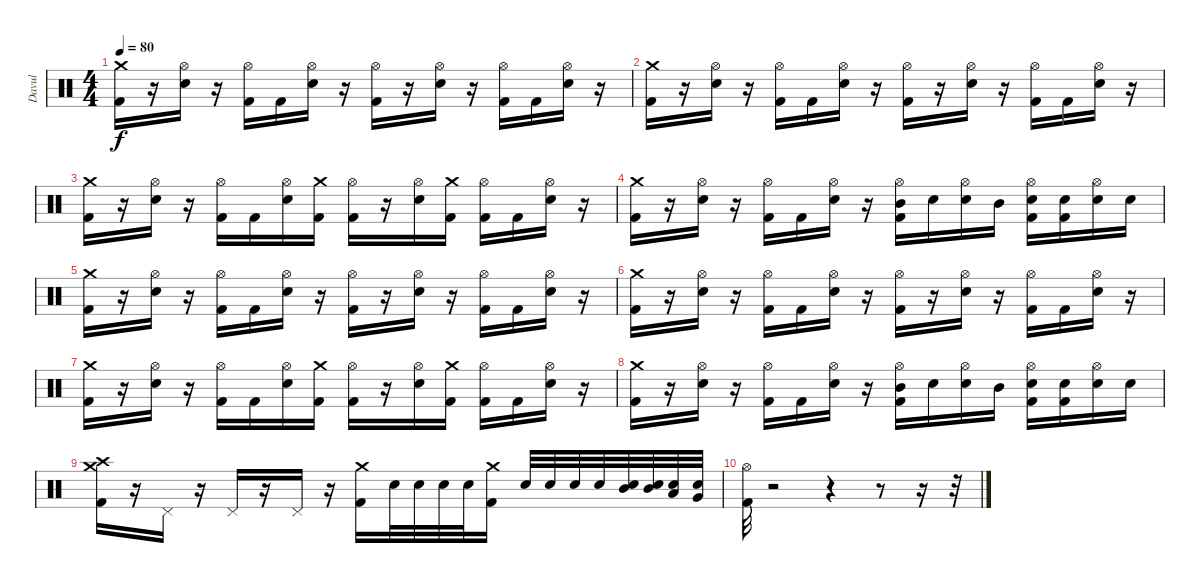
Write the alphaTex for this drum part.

\track ("Davul" "Davul") {instrument percussion}
\staff {score}
\articulation defaults
\ts (4 4)
\tempo 80
\clef neutral
\ks c
("Crash medium (hit)" "Kick (hit) 2").16{dy f} r.16 ("Hi-Hat (open)" "Snare (hit) 2").16 r.16 ("Hi-Hat (open)" "Kick (hit) 2").16 "Kick (hit) 2".16 ("Hi-Hat (open)" "Snare (hit) 2").16 r.16 ("Hi-Hat (open)" "Kick (hit) 2").16 r.16 ("Hi-Hat (open)" "Snare (hit) 2").16 r.16 ("Hi-Hat (open)" "Kick (hit) 2").16 "Kick (hit) 2".16 ("Hi-Hat (open)" "Snare (hit) 2").16 r.16 |
("Crash medium (hit)" "Kick (hit) 2").16 r.16 ("Hi-Hat (open)" "Snare (hit) 2").16 r.16 ("Hi-Hat (open)" "Kick (hit) 2").16 "Kick (hit) 2".16 ("Hi-Hat (open)" "Snare (hit) 2").16 r.16 ("Hi-Hat (open)" "Kick (hit) 2").16 r.16 ("Hi-Hat (open)" "Snare (hit) 2").16 r.16 ("Hi-Hat (open)" "Kick (hit) 2").16 "Kick (hit) 2".16 ("Hi-Hat (open)" "Snare (hit) 2").16 r.16 |
("Crash medium (hit)" "Kick (hit) 2").16 r.16 ("Hi-Hat (open)" "Snare (hit) 2").16 r.16 ("Hi-Hat (open)" "Kick (hit) 2").16 "Kick (hit) 2".16 ("Hi-Hat (open)" "Snare (hit) 2").16 ("Crash medium (hit)" "Kick (hit) 2").16 ("Hi-Hat (open)" "Kick (hit) 2").16 r.16 ("Hi-Hat (open)" "Snare (hit) 2").16 ("Crash medium (hit)" "Kick (hit) 2").16 ("Hi-Hat (open)" "Kick (hit) 2").16 "Kick (hit) 2".16 ("Hi-Hat (open)" "Snare (hit) 2").16 r.16 |
("Crash medium (hit)" "Kick (hit) 2").16 r.16 ("Hi-Hat (open)" "Snare (hit) 2").16 r.16 ("Hi-Hat (open)" "Kick (hit) 2").16 "Kick (hit) 2".16 ("Hi-Hat (open)" "Snare (hit) 2").16 r.16 ("Hi-Hat (open)" "Mid Tom (hit)" "Kick (hit) 2").16 "Snare (hit) 2".16 ("Hi-Hat (open)" "Snare (hit) 2").16 "Mid Tom (hit)".16 ("Hi-Hat (open)" "Snare (hit) 2" "Kick (hit) 2").16 ("Snare (hit) 2" "Kick (hit) 2").16 ("Hi-Hat (open)" "Snare (hit) 2").16 "Snare (hit) 2".16 |
("Crash medium (hit)" "Kick (hit) 2").16 r.16 ("Hi-Hat (open)" "Snare (hit) 2").16 r.16 ("Hi-Hat (open)" "Kick (hit) 2").16 "Kick (hit) 2".16 ("Hi-Hat (open)" "Snare (hit) 2").16 r.16 ("Hi-Hat (open)" "Kick (hit) 2").16 r.16 ("Hi-Hat (open)" "Snare (hit) 2").16 r.16 ("Hi-Hat (open)" "Kick (hit) 2").16 "Kick (hit) 2".16 ("Hi-Hat (open)" "Snare (hit) 2").16 r.16 |
("Crash medium (hit)" "Kick (hit) 2").16 r.16 ("Hi-Hat (open)" "Snare (hit) 2").16 r.16 ("Hi-Hat (open)" "Kick (hit) 2").16 "Kick (hit) 2".16 ("Hi-Hat (open)" "Snare (hit) 2").16 r.16 ("Hi-Hat (open)" "Kick (hit) 2").16 r.16 ("Hi-Hat (open)" "Snare (hit) 2").16 r.16 ("Hi-Hat (open)" "Kick (hit) 2").16 "Kick (hit) 2".16 ("Hi-Hat (open)" "Snare (hit) 2").16 r.16 |
("Crash medium (hit)" "Kick (hit) 2").16 r.16 ("Hi-Hat (open)" "Snare (hit) 2").16 r.16 ("Hi-Hat (open)" "Kick (hit) 2").16 "Kick (hit) 2".16 ("Hi-Hat (open)" "Snare (hit) 2").16 ("Crash medium (hit)" "Kick (hit) 2").16 ("Hi-Hat (open)" "Kick (hit) 2").16 r.16 ("Hi-Hat (open)" "Snare (hit) 2").16 ("Crash medium (hit)" "Kick (hit) 2").16 ("Hi-Hat (open)" "Kick (hit) 2").16 "Kick (hit) 2".16 ("Hi-Hat (open)" "Snare (hit) 2").16 r.16 |
("Crash medium (hit)" "Kick (hit) 2").16 r.16 ("Hi-Hat (open)" "Snare (hit) 2").16 r.16 ("Hi-Hat (open)" "Kick (hit) 2").16 "Kick (hit) 2".16 ("Hi-Hat (open)" "Snare (hit) 2").16 r.16 ("Hi-Hat (open)" "Mid Tom (hit)" "Kick (hit) 2").16 "Snare (hit) 2".16 ("Hi-Hat (open)" "Snare (hit) 2").16 "Mid Tom (hit)".16 ("Hi-Hat (open)" "Snare (hit) 2" "Kick (hit) 2").16 ("Snare (hit) 2" "Kick (hit) 2").16 ("Hi-Hat (open)" "Snare (hit) 2").16 "Snare (hit) 2".16 |
("Crash medium (hit)" "Crash high (hit)" "Kick (hit) 2").16 r.16 "Pedal Hi-Hat (hit)".16 r.16 "Pedal Hi-Hat (hit)".16 r.16 "Pedal Hi-Hat (hit)".16 r.16 ("Kick (hit) 2" "Crash medium (hit)").16 "Snare (hit) 2".32 "Snare (hit) 2".32 "Snare (hit) 2".32 "Snare (hit) 2".32 ("Kick (hit) 2" "Crash medium (hit)").16 "Snare (hit) 2".32 "Snare (hit) 2".32 "Snare (hit) 2".32 "Snare (hit) 2".32 ("Mid Tom (hit)" "Snare (hit) 2").32 ("Mid Tom (hit)" "Snare (hit) 2").32 ("Low Tom (hit)" "Snare (hit) 2").32 ("Very Low Tom (hit)" "Snare (hit) 2").32 |
("Hi-Hat (open)" "Kick (hit) 2").32 r.2 r.4 r.8 r.16 r.32
